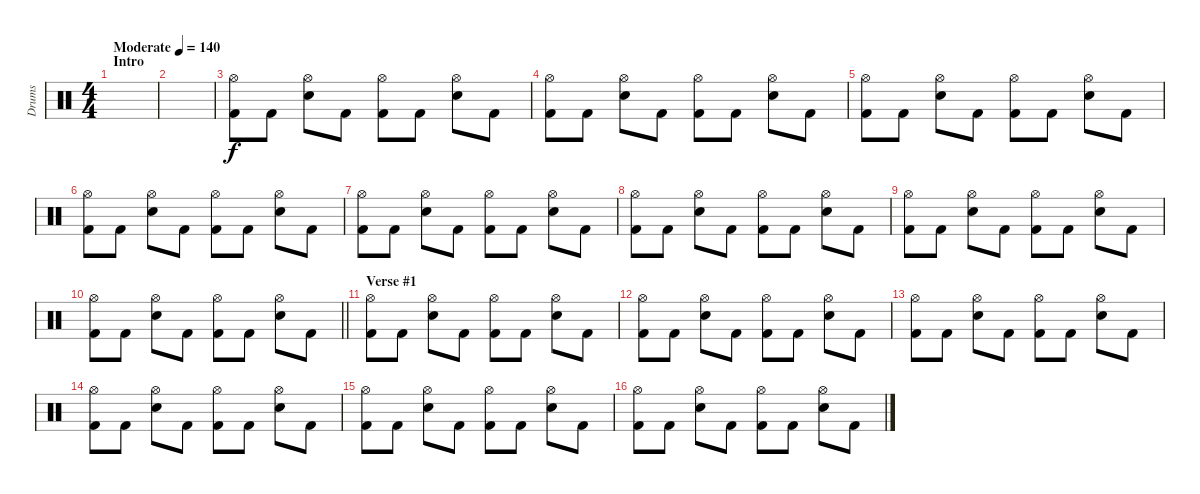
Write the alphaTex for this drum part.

\track ("Drums" "Drums") {instrument percussion}
\staff {score}
\articulation defaults
\ts (4 4)
\section ("" "Intro")
\tempo (140 "Moderate")
\clef neutral
\ks c
|
|
("Kick (hit) 2" "Hi-Hat (open)").8 "Kick (hit) 2".8 ("Electric Snare (hit)" "Hi-Hat (open)").8 "Kick (hit) 2".8 ("Kick (hit) 2" "Hi-Hat (open)").8 "Kick (hit) 2".8 ("Electric Snare (hit)" "Hi-Hat (open)").8 "Kick (hit) 2".8 |
("Kick (hit) 2" "Hi-Hat (open)").8 "Kick (hit) 2".8 ("Electric Snare (hit)" "Hi-Hat (open)").8 "Kick (hit) 2".8 ("Kick (hit) 2" "Hi-Hat (open)").8 "Kick (hit) 2".8 ("Electric Snare (hit)" "Hi-Hat (open)").8 "Kick (hit) 2".8 |
("Kick (hit) 2" "Hi-Hat (open)").8 "Kick (hit) 2".8 ("Electric Snare (hit)" "Hi-Hat (open)").8 "Kick (hit) 2".8 ("Kick (hit) 2" "Hi-Hat (open)").8 "Kick (hit) 2".8 ("Electric Snare (hit)" "Hi-Hat (open)").8 "Kick (hit) 2".8 |
("Kick (hit) 2" "Hi-Hat (open)").8 "Kick (hit) 2".8 ("Electric Snare (hit)" "Hi-Hat (open)").8 "Kick (hit) 2".8 ("Kick (hit) 2" "Hi-Hat (open)").8 "Kick (hit) 2".8 ("Electric Snare (hit)" "Hi-Hat (open)").8 "Kick (hit) 2".8 |
("Kick (hit) 2" "Hi-Hat (open)").8 "Kick (hit) 2".8 ("Electric Snare (hit)" "Hi-Hat (open)").8 "Kick (hit) 2".8 ("Kick (hit) 2" "Hi-Hat (open)").8 "Kick (hit) 2".8 ("Electric Snare (hit)" "Hi-Hat (open)").8 "Kick (hit) 2".8 |
("Kick (hit) 2" "Hi-Hat (open)").8 "Kick (hit) 2".8 ("Electric Snare (hit)" "Hi-Hat (open)").8 "Kick (hit) 2".8 ("Kick (hit) 2" "Hi-Hat (open)").8 "Kick (hit) 2".8 ("Electric Snare (hit)" "Hi-Hat (open)").8 "Kick (hit) 2".8 |
("Kick (hit) 2" "Hi-Hat (open)").8 "Kick (hit) 2".8 ("Electric Snare (hit)" "Hi-Hat (open)").8 "Kick (hit) 2".8 ("Kick (hit) 2" "Hi-Hat (open)").8 "Kick (hit) 2".8 ("Electric Snare (hit)" "Hi-Hat (open)").8 "Kick (hit) 2".8 |
\barLineRight lightlight
("Kick (hit) 2" "Hi-Hat (open)").8 "Kick (hit) 2".8 ("Electric Snare (hit)" "Hi-Hat (open)").8 "Kick (hit) 2".8 ("Kick (hit) 2" "Hi-Hat (open)").8 "Kick (hit) 2".8 ("Electric Snare (hit)" "Hi-Hat (open)").8 "Kick (hit) 2".8 |
\section ("" "Verse #1")
("Kick (hit) 2" "Hi-Hat (open)").8 "Kick (hit) 2".8 ("Electric Snare (hit)" "Hi-Hat (open)").8 "Kick (hit) 2".8 ("Kick (hit) 2" "Hi-Hat (open)").8 "Kick (hit) 2".8 ("Electric Snare (hit)" "Hi-Hat (open)").8 "Kick (hit) 2".8 |
("Kick (hit) 2" "Hi-Hat (open)").8 "Kick (hit) 2".8 ("Electric Snare (hit)" "Hi-Hat (open)").8 "Kick (hit) 2".8 ("Kick (hit) 2" "Hi-Hat (open)").8 "Kick (hit) 2".8 ("Electric Snare (hit)" "Hi-Hat (open)").8 "Kick (hit) 2".8 |
("Kick (hit) 2" "Hi-Hat (open)").8 "Kick (hit) 2".8 ("Electric Snare (hit)" "Hi-Hat (open)").8 "Kick (hit) 2".8 ("Kick (hit) 2" "Hi-Hat (open)").8 "Kick (hit) 2".8 ("Electric Snare (hit)" "Hi-Hat (open)").8 "Kick (hit) 2".8 |
("Kick (hit) 2" "Hi-Hat (open)").8 "Kick (hit) 2".8 ("Electric Snare (hit)" "Hi-Hat (open)").8 "Kick (hit) 2".8 ("Kick (hit) 2" "Hi-Hat (open)").8 "Kick (hit) 2".8 ("Electric Snare (hit)" "Hi-Hat (open)").8 "Kick (hit) 2".8 |
("Kick (hit) 2" "Hi-Hat (open)").8 "Kick (hit) 2".8 ("Electric Snare (hit)" "Hi-Hat (open)").8 "Kick (hit) 2".8 ("Kick (hit) 2" "Hi-Hat (open)").8 "Kick (hit) 2".8 ("Electric Snare (hit)" "Hi-Hat (open)").8 "Kick (hit) 2".8 |
("Kick (hit) 2" "Hi-Hat (open)").8 "Kick (hit) 2".8 ("Electric Snare (hit)" "Hi-Hat (open)").8 "Kick (hit) 2".8 ("Kick (hit) 2" "Hi-Hat (open)").8 "Kick (hit) 2".8 ("Electric Snare (hit)" "Hi-Hat (open)").8 "Kick (hit) 2".8
